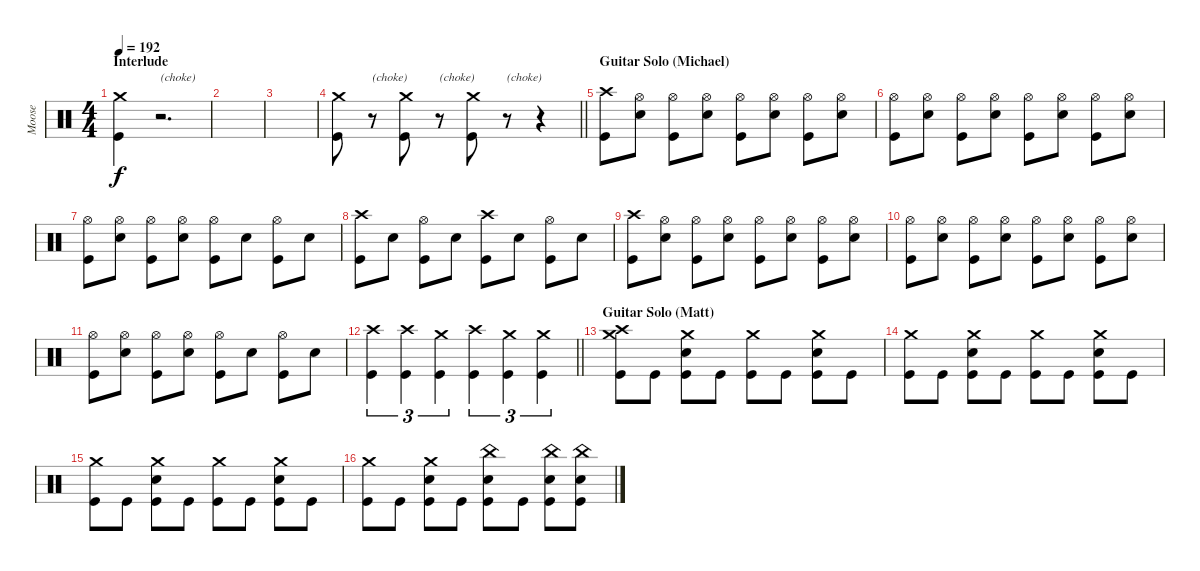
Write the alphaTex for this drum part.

\track ("Moose" "Moose") {instrument percussion}
\staff {score}
\articulation defaults
\ts (4 4)
\section ("" "Interlude")
\tempo 192
\clef neutral
\ks c
("Crash medium (hit)" "Kick (hit)").4{dy f} r.2{d txt "(choke)"} |
|
|
\barLineRight lightlight
("Crash medium (hit)" "Kick (hit)").8 r.8{txt "(choke)"} ("Crash medium (hit)" "Kick (hit)").8 r.8{txt "(choke)"} ("Crash medium (hit)" "Kick (hit)").8 r.8{txt "(choke)"} r.4 |
\section ("" "Guitar Solo (Michael)")
("Crash high (hit)" "Kick (hit)").8 ("Hi-Hat (open)" "Electric Snare (hit)").8 ("Hi-Hat (open)" "Kick (hit)").8 ("Hi-Hat (open)" "Electric Snare (hit)").8 ("Hi-Hat (open)" "Kick (hit)").8 ("Hi-Hat (open)" "Electric Snare (hit)").8 ("Hi-Hat (open)" "Kick (hit)").8 ("Hi-Hat (open)" "Electric Snare (hit)").8 |
("Hi-Hat (open)" "Kick (hit)").8 ("Hi-Hat (open)" "Electric Snare (hit)").8 ("Hi-Hat (open)" "Kick (hit)").8 ("Hi-Hat (open)" "Electric Snare (hit)").8 ("Hi-Hat (open)" "Kick (hit)").8 ("Hi-Hat (open)" "Electric Snare (hit)").8 ("Hi-Hat (open)" "Kick (hit)").8 ("Hi-Hat (open)" "Electric Snare (hit)").8 |
("Hi-Hat (open)" "Kick (hit)").8 ("Hi-Hat (open)" "Electric Snare (hit)").8 ("Hi-Hat (open)" "Kick (hit)").8 ("Hi-Hat (open)" "Electric Snare (hit)").8 ("Hi-Hat (open)" "Kick (hit)").8 "Electric Snare (hit)".8 ("Hi-Hat (open)" "Kick (hit)").8 "Electric Snare (hit)".8 |
("Crash high (hit)" "Kick (hit)").8 "Electric Snare (hit)".8 ("Hi-Hat (open)" "Kick (hit)").8 "Electric Snare (hit)".8 ("Crash high (hit)" "Kick (hit)").8 "Electric Snare (hit)".8 ("Hi-Hat (open)" "Kick (hit)").8 "Electric Snare (hit)".8 |
("Crash high (hit)" "Kick (hit)").8 ("Hi-Hat (open)" "Electric Snare (hit)").8 ("Hi-Hat (open)" "Kick (hit)").8 ("Hi-Hat (open)" "Electric Snare (hit)").8 ("Hi-Hat (open)" "Kick (hit)").8 ("Hi-Hat (open)" "Electric Snare (hit)").8 ("Hi-Hat (open)" "Kick (hit)").8 ("Hi-Hat (open)" "Electric Snare (hit)").8 |
("Hi-Hat (open)" "Kick (hit)").8 ("Hi-Hat (open)" "Electric Snare (hit)").8 ("Hi-Hat (open)" "Kick (hit)").8 ("Hi-Hat (open)" "Electric Snare (hit)").8 ("Hi-Hat (open)" "Kick (hit)").8 ("Hi-Hat (open)" "Electric Snare (hit)").8 ("Hi-Hat (open)" "Kick (hit)").8 ("Hi-Hat (open)" "Electric Snare (hit)").8 |
("Hi-Hat (open)" "Kick (hit)").8 ("Hi-Hat (open)" "Electric Snare (hit)").8 ("Hi-Hat (open)" "Kick (hit)").8 ("Hi-Hat (open)" "Electric Snare (hit)").8 ("Hi-Hat (open)" "Kick (hit)").8 "Electric Snare (hit)".8 ("Hi-Hat (open)" "Kick (hit)").8 "Electric Snare (hit)".8 |
\barLineRight lightlight
("Crash high (hit)" "Kick (hit)").4{tu (3 2)} ("Crash high (hit)" "Kick (hit)").4{tu (3 2)} ("Crash medium (hit)" "Kick (hit)").4{tu (3 2)} ("Crash high (hit)" "Kick (hit)").4{tu (3 2)} ("Crash medium (hit)" "Kick (hit)").4{tu (3 2)} ("Crash medium (hit)" "Kick (hit)").4{tu (3 2)} |
\section ("" "Guitar Solo (Matt)")
("Crash high (hit)" "Crash medium (hit)" "Kick (hit)").8 "Kick (hit)".8 ("Crash medium (hit)" "Electric Snare (hit)" "Kick (hit)").8 "Kick (hit)".8 ("Crash medium (hit)" "Kick (hit)").8 "Kick (hit)".8 ("Crash medium (hit)" "Electric Snare (hit)" "Kick (hit)").8 "Kick (hit)".8 |
("Crash medium (hit)" "Kick (hit)").8 "Kick (hit)".8 ("Crash medium (hit)" "Electric Snare (hit)" "Kick (hit)").8 "Kick (hit)".8 ("Crash medium (hit)" "Kick (hit)").8 "Kick (hit)".8 ("Crash medium (hit)" "Electric Snare (hit)" "Kick (hit)").8 "Kick (hit)".8 |
("Crash medium (hit)" "Kick (hit)").8 "Kick (hit)".8 ("Crash medium (hit)" "Electric Snare (hit)" "Kick (hit)").8 "Kick (hit)".8 ("Crash medium (hit)" "Kick (hit)").8 "Kick (hit)".8 ("Crash medium (hit)" "Electric Snare (hit)" "Kick (hit)").8 "Kick (hit)".8 |
("Crash medium (hit)" "Kick (hit)").8 "Kick (hit)".8 ("Crash medium (hit)" "Electric Snare (hit)" "Kick (hit)").8 "Kick (hit)".8 ("China (hit)" "Electric Snare (hit)" "Kick (hit)").8 "Kick (hit)".8 ("China (hit)" "Electric Snare (hit)" "Kick (hit)").8 ("China (hit)" "Electric Snare (hit)" "Kick (hit)").8
